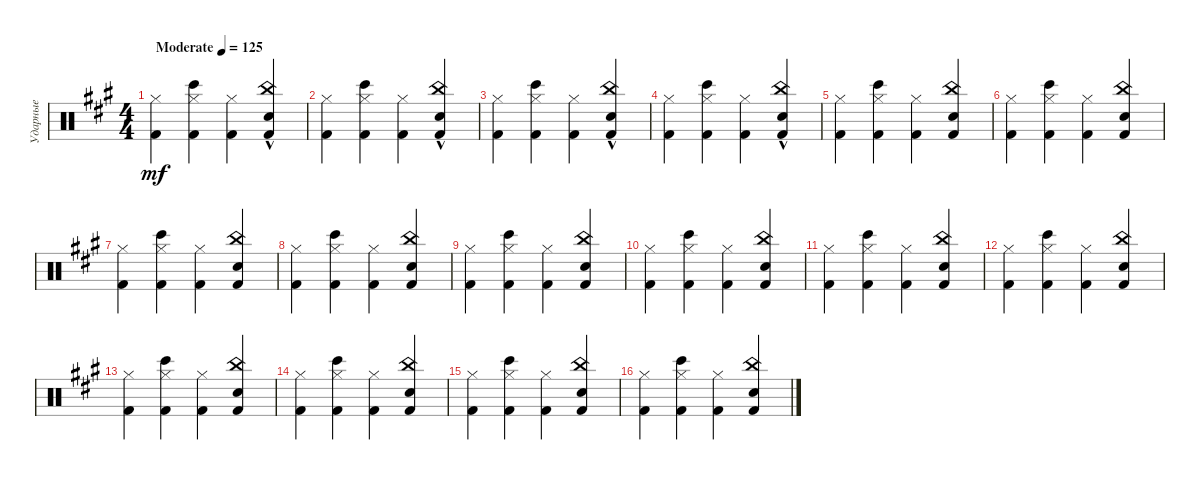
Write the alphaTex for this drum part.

\track ("Ударные" "Ударные") {instrument percussion}
\staff {score}
\articulation defaults
\ts (4 4)
\tempo (125 "Moderate")
\clef neutral
\ks f#minor
("Hi-Hat (closed)" "Kick (hit) 2").4{dy mf} ("Hi-Hat (closed)" "Bongo High (hit)" "Kick (hit) 2").4 ("Hi-Hat (closed)" "Kick (hit) 2").4 ("China (hit)"{hac} "Electric Snare (hit)" "Kick (hit) 2").4 |
("Hi-Hat (closed)" "Kick (hit) 2").4 ("Hi-Hat (closed)" "Bongo High (hit)" "Kick (hit) 2").4 ("Hi-Hat (closed)" "Kick (hit) 2").4 ("China (hit)"{hac} "Electric Snare (hit)" "Kick (hit) 2").4 |
("Hi-Hat (closed)" "Kick (hit) 2").4 ("Hi-Hat (closed)" "Bongo High (hit)" "Kick (hit) 2").4 ("Hi-Hat (closed)" "Kick (hit) 2").4 ("China (hit)"{hac} "Electric Snare (hit)" "Kick (hit) 2").4 |
("Hi-Hat (closed)" "Kick (hit) 2").4 ("Hi-Hat (closed)" "Bongo High (hit)" "Kick (hit) 2").4 ("Hi-Hat (closed)" "Kick (hit) 2").4 ("China (hit)"{hac} "Electric Snare (hit)" "Kick (hit) 2").4 |
("Hi-Hat (closed)" "Kick (hit) 2").4 ("Hi-Hat (closed)" "Bongo High (hit)" "Kick (hit) 2").4 ("Hi-Hat (closed)" "Kick (hit) 2").4 ("China (hit)" "Electric Snare (hit)" "Kick (hit) 2").4 |
("Hi-Hat (closed)" "Kick (hit) 2").4 ("Hi-Hat (closed)" "Bongo High (hit)" "Kick (hit) 2").4 ("Hi-Hat (closed)" "Kick (hit) 2").4 ("China (hit)" "Electric Snare (hit)" "Kick (hit) 2").4 |
("Hi-Hat (closed)" "Kick (hit) 2").4 ("Hi-Hat (closed)" "Bongo High (hit)" "Kick (hit) 2").4 ("Hi-Hat (closed)" "Kick (hit) 2").4 ("China (hit)" "Electric Snare (hit)" "Kick (hit) 2").4 |
("Hi-Hat (closed)" "Kick (hit) 2").4 ("Hi-Hat (closed)" "Bongo High (hit)" "Kick (hit) 2").4 ("Hi-Hat (closed)" "Kick (hit) 2").4 ("China (hit)" "Electric Snare (hit)" "Kick (hit) 2").4 |
("Hi-Hat (closed)" "Kick (hit) 2").4 ("Hi-Hat (closed)" "Bongo High (hit)" "Kick (hit) 2").4 ("Hi-Hat (closed)" "Kick (hit) 2").4 ("China (hit)" "Electric Snare (hit)" "Kick (hit) 2").4 |
("Hi-Hat (closed)" "Kick (hit) 2").4 ("Hi-Hat (closed)" "Bongo High (hit)" "Kick (hit) 2").4 ("Hi-Hat (closed)" "Kick (hit) 2").4 ("China (hit)" "Electric Snare (hit)" "Kick (hit) 2").4 |
("Hi-Hat (closed)" "Kick (hit) 2").4 ("Hi-Hat (closed)" "Bongo High (hit)" "Kick (hit) 2").4 ("Hi-Hat (closed)" "Kick (hit) 2").4 ("China (hit)" "Electric Snare (hit)" "Kick (hit) 2").4 |
("Hi-Hat (closed)" "Kick (hit) 2").4 ("Hi-Hat (closed)" "Bongo High (hit)" "Kick (hit) 2").4 ("Hi-Hat (closed)" "Kick (hit) 2").4 ("China (hit)" "Electric Snare (hit)" "Kick (hit) 2").4 |
("Hi-Hat (closed)" "Kick (hit) 2").4 ("Hi-Hat (closed)" "Bongo High (hit)" "Kick (hit) 2").4 ("Hi-Hat (closed)" "Kick (hit) 2").4 ("China (hit)" "Electric Snare (hit)" "Kick (hit) 2").4 |
("Hi-Hat (closed)" "Kick (hit) 2").4 ("Hi-Hat (closed)" "Bongo High (hit)" "Kick (hit) 2").4 ("Hi-Hat (closed)" "Kick (hit) 2").4 ("China (hit)" "Electric Snare (hit)" "Kick (hit) 2").4 |
("Hi-Hat (closed)" "Kick (hit) 2").4 ("Hi-Hat (closed)" "Bongo High (hit)" "Kick (hit) 2").4 ("Hi-Hat (closed)" "Kick (hit) 2").4 ("China (hit)" "Electric Snare (hit)" "Kick (hit) 2").4 |
("Hi-Hat (closed)" "Kick (hit) 2").4 ("Hi-Hat (closed)" "Bongo High (hit)" "Kick (hit) 2").4 ("Hi-Hat (closed)" "Kick (hit) 2").4 ("China (hit)" "Electric Snare (hit)" "Kick (hit) 2").4
